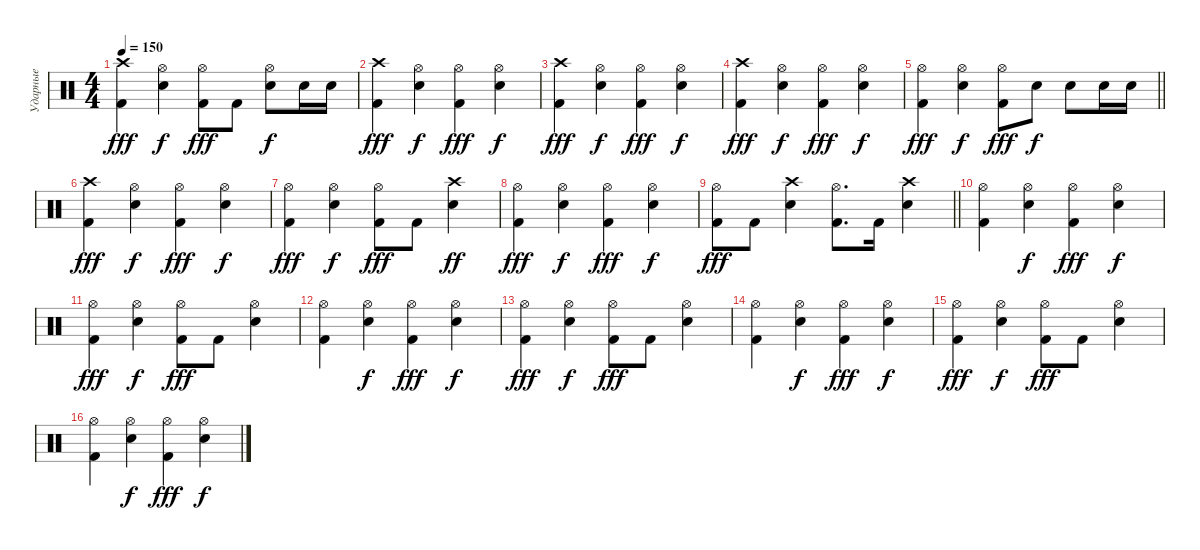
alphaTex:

\track ("Ударные" "Ударные") {instrument percussion}
\staff {score}
\articulation defaults
\ts (4 4)
\tempo 150
\clef neutral
\ks c
("Kick (hit) 2" "Crash high (hit)").4{dy fff} ("Snare (hit) 2" "Hi-Hat (open)").4{dy f} ("Kick (hit) 2" "Hi-Hat (open)").8{dy fff} "Kick (hit) 2".8 ("Snare (hit) 2" "Hi-Hat (open)").8{dy f} "Snare (hit) 2".16 "Snare (hit) 2".16 |
("Kick (hit) 2" "Crash high (hit)").4{dy fff} ("Snare (hit) 2" "Hi-Hat (open)").4{dy f} ("Kick (hit) 2" "Hi-Hat (open)").4{dy fff} ("Snare (hit) 2" "Hi-Hat (open)").4{dy f} |
("Kick (hit) 2" "Crash high (hit)").4{dy fff} ("Snare (hit) 2" "Hi-Hat (open)").4{dy f} ("Kick (hit) 2" "Hi-Hat (open)").4{dy fff} ("Snare (hit) 2" "Hi-Hat (open)").4{dy f} |
("Kick (hit) 2" "Crash high (hit)").4{dy fff} ("Snare (hit) 2" "Hi-Hat (open)").4{dy f} ("Kick (hit) 2" "Hi-Hat (open)").4{dy fff} ("Snare (hit) 2" "Hi-Hat (open)").4{dy f} |
\barLineRight lightlight
("Kick (hit) 2" "Hi-Hat (open)").4{dy fff} ("Snare (hit) 2" "Hi-Hat (open)").4{dy f} ("Kick (hit) 2" "Hi-Hat (open)").8{dy fff} "Snare (hit) 2".8{dy f} "Snare (hit) 2".8 "Snare (hit) 2".16 "Snare (hit) 2".16 |
("Kick (hit) 2" "Crash high (hit)").4{dy fff} ("Snare (hit) 2" "Hi-Hat (open)").4{dy f} ("Kick (hit) 2" "Hi-Hat (open)").4{dy fff} ("Snare (hit) 2" "Hi-Hat (open)").4{dy f} |
("Kick (hit) 2" "Hi-Hat (open)").4{dy fff} ("Snare (hit) 2" "Hi-Hat (open)").4{dy f} ("Kick (hit) 2" "Hi-Hat (open)").8{dy fff} "Kick (hit) 2".8 ("Snare (hit) 2" "Crash high (hit)").4{dy ff} |
("Kick (hit) 2" "Hi-Hat (open)").4{dy fff} ("Snare (hit) 2" "Hi-Hat (open)").4{dy f} ("Kick (hit) 2" "Hi-Hat (open)").4{dy fff} ("Snare (hit) 2" "Hi-Hat (open)").4{dy f} |
\barLineRight lightlight
("Kick (hit) 2" "Hi-Hat (open)").8{dy fff} "Kick (hit) 2".8 ("Snare (hit) 2" "Crash high (hit)").4 ("Kick (hit) 2" "Hi-Hat (open)").8{d} "Kick (hit) 2".16 ("Snare (hit) 2" "Crash high (hit)").4 |
("Kick (hit) 2" "Hi-Hat (open)").4 ("Snare (hit) 2" "Hi-Hat (open)").4{dy f} ("Kick (hit) 2" "Hi-Hat (open)").4{dy fff} ("Snare (hit) 2" "Hi-Hat (open)").4{dy f} |
("Kick (hit) 2" "Hi-Hat (open)").4{dy fff} ("Snare (hit) 2" "Hi-Hat (open)").4{dy f} ("Kick (hit) 2" "Hi-Hat (open)").8{dy fff} "Kick (hit) 2".8 ("Snare (hit) 2" "Hi-Hat (open)").4 |
("Kick (hit) 2" "Hi-Hat (open)").4 ("Snare (hit) 2" "Hi-Hat (open)").4{dy f} ("Kick (hit) 2" "Hi-Hat (open)").4{dy fff} ("Snare (hit) 2" "Hi-Hat (open)").4{dy f} |
("Kick (hit) 2" "Hi-Hat (open)").4{dy fff} ("Snare (hit) 2" "Hi-Hat (open)").4{dy f} ("Kick (hit) 2" "Hi-Hat (open)").8{dy fff} "Kick (hit) 2".8 ("Snare (hit) 2" "Hi-Hat (open)").4 |
("Kick (hit) 2" "Hi-Hat (open)").4 ("Snare (hit) 2" "Hi-Hat (open)").4{dy f} ("Kick (hit) 2" "Hi-Hat (open)").4{dy fff} ("Snare (hit) 2" "Hi-Hat (open)").4{dy f} |
("Kick (hit) 2" "Hi-Hat (open)").4{dy fff} ("Snare (hit) 2" "Hi-Hat (open)").4{dy f} ("Kick (hit) 2" "Hi-Hat (open)").8{dy fff} "Kick (hit) 2".8 ("Snare (hit) 2" "Hi-Hat (open)").4 |
("Kick (hit) 2" "Hi-Hat (open)").4 ("Snare (hit) 2" "Hi-Hat (open)").4{dy f} ("Kick (hit) 2" "Hi-Hat (open)").4{dy fff} ("Snare (hit) 2" "Hi-Hat (open)").4{dy f}
